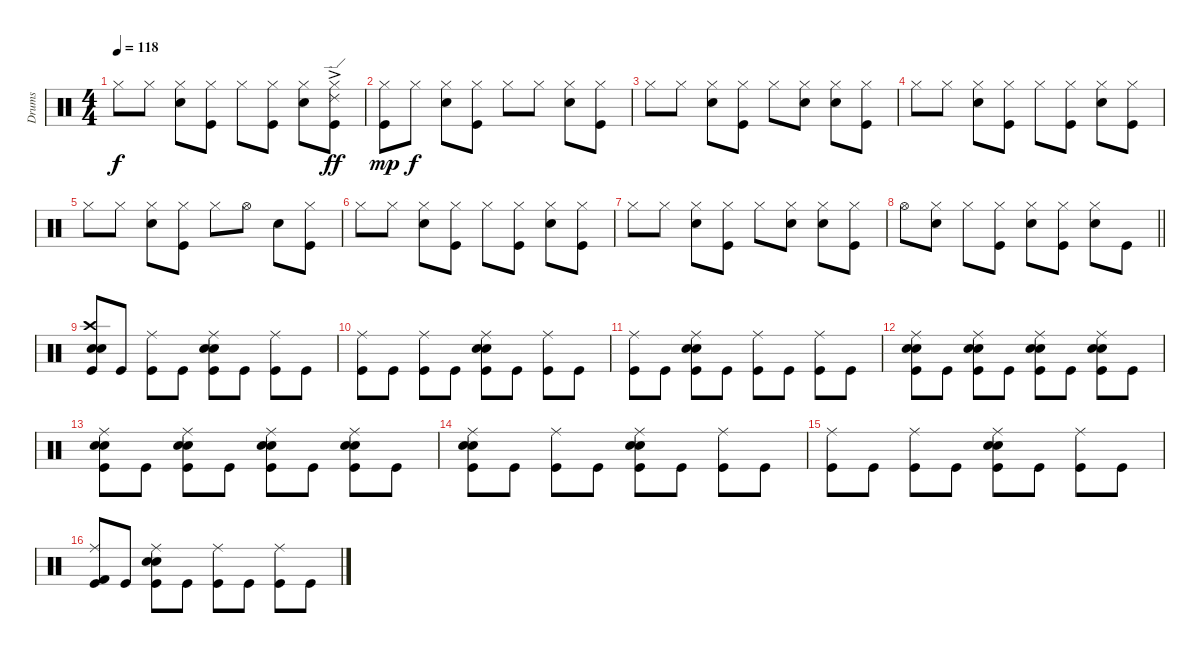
\track ("Drums" "Drums") {instrument percussion}
\staff {score}
\articulation defaults
\ts (4 4)
\tempo 118
\clef neutral
\ks c "Hi-Hat (closed)".8{dy f} "Hi-Hat (closed)".8
("Hi-Hat (closed)" "Snare (hit) 2").8 ("Hi-Hat (closed)" "Kick (hit)").8 "Hi-Hat (closed)".8 ("Hi-Hat (closed)" "Kick (hit)").8 ("Hi-Hat (closed)" "Snare (hit) 2").8 ("Hi-Hat (closed)" "Ride (edge) 2"{ac} "Kick (hit)").8{dy ff} |
("Hi-Hat (closed)" "Kick (hit)").8{dy mp} "Hi-Hat (closed)".8{dy f} ("Hi-Hat (closed)" "Snare (hit) 2").8 ("Hi-Hat (closed)" "Kick (hit)").8 "Hi-Hat (closed)".8 "Hi-Hat (closed)".8 ("Hi-Hat (closed)" "Snare (hit) 2").8 ("Hi-Hat (closed)" "Kick (hit)").8 |
"Hi-Hat (closed)".8 "Hi-Hat (closed)".8 ("Hi-Hat (closed)" "Snare (hit) 2").8 ("Hi-Hat (closed)" "Kick (hit)").8 "Hi-Hat (closed)".8 ("Hi-Hat (closed)" "Snare (hit) 2").8 ("Hi-Hat (closed)" "Snare (hit) 2").8 ("Hi-Hat (closed)" "Kick (hit)").8 |
"Hi-Hat (closed)".8 "Hi-Hat (closed)".8 ("Hi-Hat (closed)" "Snare (hit) 2").8 ("Hi-Hat (closed)" "Kick (hit)").8 "Hi-Hat (closed)".8 ("Hi-Hat (closed)" "Kick (hit)").8 ("Hi-Hat (closed)" "Snare (hit) 2").8 ("Hi-Hat (closed)" "Kick (hit)").8 |
"Hi-Hat (closed)".8 "Hi-Hat (closed)".8 ("Hi-Hat (closed)" "Snare (hit) 2").8 ("Hi-Hat (closed)" "Kick (hit)").8 "Hi-Hat (closed)".8 "Hi-Hat (open)".8 "Snare (hit) 2".8 ("Hi-Hat (closed)" "Kick (hit)").8 |
"Hi-Hat (closed)".8 "Hi-Hat (closed)".8 ("Hi-Hat (closed)" "Snare (hit) 2").8 ("Hi-Hat (closed)" "Kick (hit)").8 "Hi-Hat (closed)".8 ("Hi-Hat (closed)" "Kick (hit)").8 ("Hi-Hat (closed)" "Snare (hit) 2").8 ("Hi-Hat (closed)" "Kick (hit)").8 |
"Hi-Hat (closed)".8 "Hi-Hat (closed)".8 ("Hi-Hat (closed)" "Snare (hit) 2").8 ("Hi-Hat (closed)" "Kick (hit)").8 "Hi-Hat (closed)".8 ("Hi-Hat (closed)" "Snare (hit) 2").8 ("Hi-Hat (closed)" "Snare (hit) 2").8 ("Hi-Hat (closed)" "Kick (hit)").8 |
\barLineRight lightlight "Hi-Hat (open)".8
("Hi-Hat (closed)" "Snare (hit) 2").8 "Hi-Hat (closed)".8 ("Hi-Hat (closed)" "Kick (hit)").8 ("Hi-Hat (closed)" "Snare (hit) 2").8 ("Hi-Hat (closed)" "Kick (hit)").8 ("Hi-Hat (closed)" "Snare (hit) 2").8 "Kick (hit)".8 |
("Crash high (hit)" "Snare (hit) 2" "Electric Snare (hit)" "Kick (hit)").8 "Kick (hit)".8 ("Ride (middle)" "Kick (hit)").8 "Kick (hit)".8 ("Ride (middle)" "Snare (hit) 2" "Electric Snare (hit)" "Kick (hit)").8 "Kick (hit)".8 ("Ride (middle)" "Kick (hit)").8 "Kick (hit)".8 |
("Ride (middle)" "Kick (hit)").8 "Kick (hit)".8 ("Ride (middle)" "Kick (hit)").8 "Kick (hit)".8 ("Ride (middle)" "Snare (hit) 2" "Electric Snare (hit)" "Kick (hit)").8 "Kick (hit)".8 ("Ride (middle)" "Kick (hit)").8 "Kick (hit)".8 |
("Ride (middle)" "Kick (hit)").8 "Kick (hit)".8 ("Ride (middle)" "Snare (hit) 2" "Electric Snare (hit)" "Kick (hit)").8 "Kick (hit)".8 ("Ride (middle)" "Kick (hit)").8 "Kick (hit)".8 ("Ride (middle)" "Kick (hit)").8 "Kick (hit)".8 |
("Ride (middle)" "Snare (hit) 2" "Electric Snare (hit)" "Kick (hit)").8 "Kick (hit)".8 ("Ride (middle)" "Snare (hit) 2" "Electric Snare (hit)" "Kick (hit)").8 "Kick (hit)".8 ("Ride (middle)" "Snare (hit) 2" "Electric Snare (hit)" "Kick (hit)").8 "Kick (hit)".8 ("Ride (middle)" "Snare (hit) 2" "Electric Snare (hit)" "Kick (hit)").8 "Kick (hit)".8 |
("Ride (middle)" "Snare (hit) 2" "Electric Snare (hit)" "Kick (hit)").8 "Kick (hit)".8 ("Ride (middle)" "Snare (hit) 2" "Electric Snare (hit)" "Kick (hit)").8 "Kick (hit)".8 ("Ride (middle)" "Snare (hit) 2" "Electric Snare (hit)" "Kick (hit)").8 "Kick (hit)".8 ("Ride (middle)" "Snare (hit) 2" "Electric Snare (hit)" "Kick (hit)").8 "Kick (hit)".8 |
("Ride (middle)" "Snare (hit) 2" "Electric Snare (hit)" "Kick (hit)").8 "Kick (hit)".8 ("Ride (middle)" "Kick (hit)").8 "Kick (hit)".8 ("Ride (middle)" "Snare (hit) 2" "Electric Snare (hit)" "Kick (hit)").8 "Kick (hit)".8 ("Ride (middle)" "Kick (hit)").8 "Kick (hit)".8 |
("Ride (middle)" "Kick (hit)").8 "Kick (hit)".8 ("Ride (middle)" "Kick (hit)").8 "Kick (hit)".8 ("Ride (middle)" "Snare (hit) 2" "Electric Snare (hit)" "Kick (hit)").8 "Kick (hit)".8 ("Ride (middle)" "Kick (hit)").8 "Kick (hit)".8 |
("Ride (middle)" "Kick (hit) 2" "Kick (hit)").8 "Kick (hit)".8 ("Ride (middle)" "Snare (hit) 2" "Electric Snare (hit)" "Kick (hit)").8 "Kick (hit)".8 ("Ride (middle)" "Kick (hit)").8 "Kick (hit)".8 ("Ride (middle)" "Kick (hit)").8 "Kick (hit)".8
